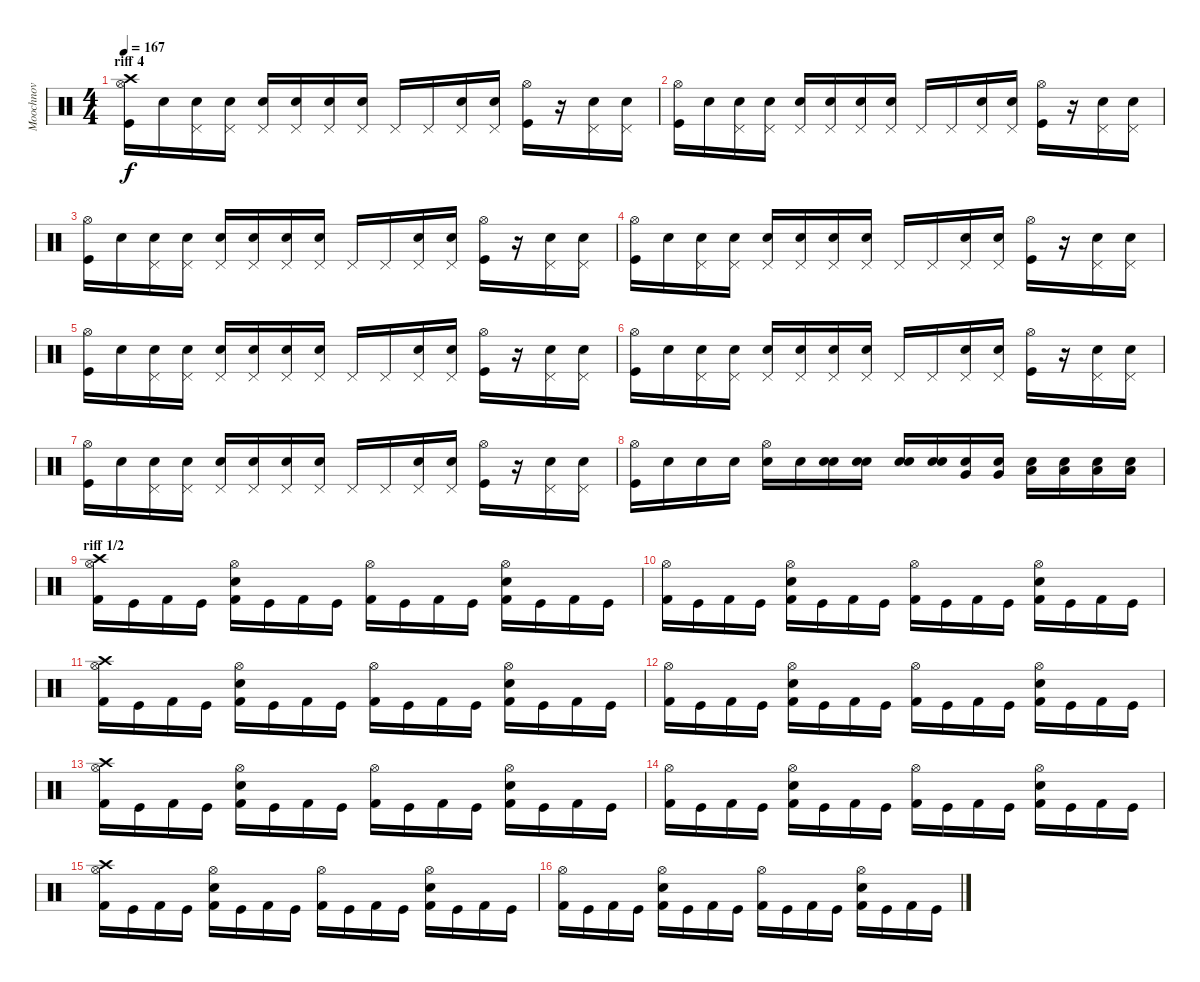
\track ("Moochnov" "Moochnov") {instrument percussion}
\staff {score}
\articulation defaults
\ts (4 4)
\section ("" "riff 4")
\tempo 167
\clef neutral
\ks c
("Kick (hit)" "Hi-Hat (open)" "Crash high (hit)").16{dy f} "Snare (hit)"{x}.16 ("Snare (hit)"{x} "Pedal Hi-Hat (hit)").16 ("Snare (hit)"{x} "Pedal Hi-Hat (hit)").16 ("Snare (hit)"{x} "Pedal Hi-Hat (hit)").16 ("Snare (hit)"{x} "Pedal Hi-Hat (hit)").16 ("Snare (hit) 2" "Pedal Hi-Hat (hit)").16 ("Snare (hit)"{x} "Pedal Hi-Hat (hit)").16 "Pedal Hi-Hat (hit)".16 "Pedal Hi-Hat (hit)".16 ("Snare (hit)"{x} "Pedal Hi-Hat (hit)").16 ("Snare (hit)"{x} "Pedal Hi-Hat (hit)").16 ("Kick (hit)" "Hi-Hat (open)").16 r.16 ("Snare (hit)"{x} "Pedal Hi-Hat (hit)").16 ("Snare (hit)"{x} "Pedal Hi-Hat (hit)").16 |
("Kick (hit)" "Hi-Hat (open)").16 "Snare (hit)"{x}.16 ("Snare (hit)"{x} "Pedal Hi-Hat (hit)").16 ("Snare (hit)"{x} "Pedal Hi-Hat (hit)").16 ("Snare (hit)"{x} "Pedal Hi-Hat (hit)").16 ("Snare (hit)"{x} "Pedal Hi-Hat (hit)").16 ("Snare (hit) 2" "Pedal Hi-Hat (hit)").16 ("Snare (hit)"{x} "Pedal Hi-Hat (hit)").16 "Pedal Hi-Hat (hit)".16 "Pedal Hi-Hat (hit)".16 ("Snare (hit)"{x} "Pedal Hi-Hat (hit)").16 ("Snare (hit)"{x} "Pedal Hi-Hat (hit)").16 ("Kick (hit)" "Hi-Hat (open)").16 r.16 ("Snare (hit)"{x} "Pedal Hi-Hat (hit)").16 ("Snare (hit)"{x} "Pedal Hi-Hat (hit)").16 |
("Kick (hit)" "Hi-Hat (open)").16 "Snare (hit)"{x}.16 ("Snare (hit)"{x} "Pedal Hi-Hat (hit)").16 ("Snare (hit)"{x} "Pedal Hi-Hat (hit)").16 ("Snare (hit)"{x} "Pedal Hi-Hat (hit)").16 ("Snare (hit)"{x} "Pedal Hi-Hat (hit)").16 ("Snare (hit) 2" "Pedal Hi-Hat (hit)").16 ("Snare (hit)"{x} "Pedal Hi-Hat (hit)").16 "Pedal Hi-Hat (hit)".16 "Pedal Hi-Hat (hit)".16 ("Snare (hit)"{x} "Pedal Hi-Hat (hit)").16 ("Snare (hit)"{x} "Pedal Hi-Hat (hit)").16 ("Kick (hit)" "Hi-Hat (open)").16 r.16 ("Snare (hit)"{x} "Pedal Hi-Hat (hit)").16 ("Snare (hit)"{x} "Pedal Hi-Hat (hit)").16 |
("Kick (hit)" "Hi-Hat (open)").16 "Snare (hit)"{x}.16 ("Snare (hit)"{x} "Pedal Hi-Hat (hit)").16 ("Snare (hit)"{x} "Pedal Hi-Hat (hit)").16 ("Snare (hit)"{x} "Pedal Hi-Hat (hit)").16 ("Snare (hit)"{x} "Pedal Hi-Hat (hit)").16 ("Snare (hit) 2" "Pedal Hi-Hat (hit)").16 ("Snare (hit)"{x} "Pedal Hi-Hat (hit)").16 "Pedal Hi-Hat (hit)".16 "Pedal Hi-Hat (hit)".16 ("Snare (hit)"{x} "Pedal Hi-Hat (hit)").16 ("Snare (hit)"{x} "Pedal Hi-Hat (hit)").16 ("Kick (hit)" "Hi-Hat (open)").16 r.16 ("Snare (hit)"{x} "Pedal Hi-Hat (hit)").16 ("Snare (hit)"{x} "Pedal Hi-Hat (hit)").16 |
("Kick (hit)" "Hi-Hat (open)").16 "Snare (hit)"{x}.16 ("Snare (hit)"{x} "Pedal Hi-Hat (hit)").16 ("Snare (hit)"{x} "Pedal Hi-Hat (hit)").16 ("Snare (hit)"{x} "Pedal Hi-Hat (hit)").16 ("Snare (hit)"{x} "Pedal Hi-Hat (hit)").16 ("Snare (hit) 2" "Pedal Hi-Hat (hit)").16 ("Snare (hit)"{x} "Pedal Hi-Hat (hit)").16 "Pedal Hi-Hat (hit)".16 "Pedal Hi-Hat (hit)".16 ("Snare (hit)"{x} "Pedal Hi-Hat (hit)").16 ("Snare (hit)"{x} "Pedal Hi-Hat (hit)").16 ("Kick (hit)" "Hi-Hat (open)").16 r.16 ("Snare (hit)"{x} "Pedal Hi-Hat (hit)").16 ("Snare (hit)"{x} "Pedal Hi-Hat (hit)").16 |
("Kick (hit)" "Hi-Hat (open)").16 "Snare (hit)"{x}.16 ("Snare (hit)"{x} "Pedal Hi-Hat (hit)").16 ("Snare (hit)"{x} "Pedal Hi-Hat (hit)").16 ("Snare (hit)"{x} "Pedal Hi-Hat (hit)").16 ("Snare (hit)"{x} "Pedal Hi-Hat (hit)").16 ("Snare (hit) 2" "Pedal Hi-Hat (hit)").16 ("Snare (hit)"{x} "Pedal Hi-Hat (hit)").16 "Pedal Hi-Hat (hit)".16 "Pedal Hi-Hat (hit)".16 ("Snare (hit)"{x} "Pedal Hi-Hat (hit)").16 ("Snare (hit)"{x} "Pedal Hi-Hat (hit)").16 ("Kick (hit)" "Hi-Hat (open)").16 r.16 ("Snare (hit)"{x} "Pedal Hi-Hat (hit)").16 ("Snare (hit)"{x} "Pedal Hi-Hat (hit)").16 |
("Kick (hit)" "Hi-Hat (open)").16 "Snare (hit)"{x}.16 ("Snare (hit)"{x} "Pedal Hi-Hat (hit)").16 ("Snare (hit)"{x} "Pedal Hi-Hat (hit)").16 ("Snare (hit)"{x} "Pedal Hi-Hat (hit)").16 ("Snare (hit)"{x} "Pedal Hi-Hat (hit)").16 ("Snare (hit) 2" "Pedal Hi-Hat (hit)").16 ("Snare (hit)"{x} "Pedal Hi-Hat (hit)").16 "Pedal Hi-Hat (hit)".16 "Pedal Hi-Hat (hit)".16 ("Snare (hit)"{x} "Pedal Hi-Hat (hit)").16 ("Snare (hit)"{x} "Pedal Hi-Hat (hit)").16 ("Kick (hit)" "Hi-Hat (open)").16 r.16 ("Snare (hit)"{x} "Pedal Hi-Hat (hit)").16 ("Snare (hit)"{x} "Pedal Hi-Hat (hit)").16 |
("Kick (hit)" "Hi-Hat (open)").16 "Snare (hit)"{x}.16 "Snare (hit)"{x}.16 "Snare (hit)"{x}.16 ("Snare (hit)"{x} "Hi-Hat (open)").16 "Snare (hit)"{x}.16 ("Snare (hit)"{x} "Electric Snare (hit)").16 ("Snare (hit)"{x} "Electric Snare (hit)").16 ("Snare (hit)"{x} "Electric Snare (hit)").16 ("Snare (hit)"{x} "Electric Snare (hit)").16 ("Snare (hit)"{x} "Very Low Tom (hit)").16 ("Snare (hit)"{x} "Very Low Tom (hit)").16 ("Snare (hit)"{x} "Low Floor Tom (hit)").16 ("Snare (hit)"{x} "Low Floor Tom (hit)").16 ("Snare (hit)"{x} "Low Floor Tom (hit)").16 ("Snare (hit)"{x} "Low Floor Tom (hit)").16 |
\section ("" "riff 1/2")
("Kick (hit) 2" "Crash high (hit)" "Hi-Hat (open)").16 "Kick (hit)".16 "Kick (hit) 2".16 "Kick (hit)".16 ("Kick (hit) 2" "Snare (hit) 2" "Hi-Hat (open)").16 "Kick (hit)".16 "Kick (hit) 2".16 "Kick (hit)".16 ("Kick (hit) 2" "Hi-Hat (open)").16 "Kick (hit)".16 "Kick (hit) 2".16 "Kick (hit)".16 ("Kick (hit) 2" "Snare (hit) 2" "Hi-Hat (open)").16 "Kick (hit)".16 "Kick (hit) 2".16 "Kick (hit)".16 |
("Kick (hit) 2" "Hi-Hat (open)").16 "Kick (hit)".16 "Kick (hit) 2".16 "Kick (hit)".16 ("Kick (hit) 2" "Snare (hit) 2" "Hi-Hat (open)").16 "Kick (hit)".16 "Kick (hit) 2".16 "Kick (hit)".16 ("Kick (hit) 2" "Hi-Hat (open)").16 "Kick (hit)".16 "Kick (hit) 2".16 "Kick (hit)".16 ("Kick (hit) 2" "Snare (hit) 2" "Hi-Hat (open)").16 "Kick (hit)".16 "Kick (hit) 2".16 "Kick (hit)".16 |
("Kick (hit) 2" "Crash high (hit)" "Hi-Hat (open)").16 "Kick (hit)".16 "Kick (hit) 2".16 "Kick (hit)".16 ("Kick (hit) 2" "Snare (hit) 2" "Hi-Hat (open)").16 "Kick (hit)".16 "Kick (hit) 2".16 "Kick (hit)".16 ("Kick (hit) 2" "Hi-Hat (open)").16 "Kick (hit)".16 "Kick (hit) 2".16 "Kick (hit)".16 ("Kick (hit) 2" "Snare (hit) 2" "Hi-Hat (open)").16 "Kick (hit)".16 "Kick (hit) 2".16 "Kick (hit)".16 |
("Kick (hit) 2" "Hi-Hat (open)").16 "Kick (hit)".16 "Kick (hit) 2".16 "Kick (hit)".16 ("Kick (hit) 2" "Snare (hit) 2" "Hi-Hat (open)").16 "Kick (hit)".16 "Kick (hit) 2".16 "Kick (hit)".16 ("Kick (hit) 2" "Hi-Hat (open)").16 "Kick (hit)".16 "Kick (hit) 2".16 "Kick (hit)".16 ("Kick (hit) 2" "Snare (hit) 2" "Hi-Hat (open)").16 "Kick (hit)".16 "Kick (hit) 2".16 "Kick (hit)".16 |
("Kick (hit) 2" "Crash high (hit)" "Hi-Hat (open)").16 "Kick (hit)".16 "Kick (hit) 2".16 "Kick (hit)".16 ("Kick (hit) 2" "Snare (hit) 2" "Hi-Hat (open)").16 "Kick (hit)".16 "Kick (hit) 2".16 "Kick (hit)".16 ("Kick (hit) 2" "Hi-Hat (open)").16 "Kick (hit)".16 "Kick (hit) 2".16 "Kick (hit)".16 ("Kick (hit) 2" "Snare (hit) 2" "Hi-Hat (open)").16 "Kick (hit)".16 "Kick (hit) 2".16 "Kick (hit)".16 |
("Kick (hit) 2" "Hi-Hat (open)").16 "Kick (hit)".16 "Kick (hit) 2".16 "Kick (hit)".16 ("Kick (hit) 2" "Snare (hit) 2" "Hi-Hat (open)").16 "Kick (hit)".16 "Kick (hit) 2".16 "Kick (hit)".16 ("Kick (hit) 2" "Hi-Hat (open)").16 "Kick (hit)".16 "Kick (hit) 2".16 "Kick (hit)".16 ("Kick (hit) 2" "Snare (hit) 2" "Hi-Hat (open)").16 "Kick (hit)".16 "Kick (hit) 2".16 "Kick (hit)".16 |
("Kick (hit) 2" "Crash high (hit)" "Hi-Hat (open)").16 "Kick (hit)".16 "Kick (hit) 2".16 "Kick (hit)".16 ("Kick (hit) 2" "Snare (hit) 2" "Hi-Hat (open)").16 "Kick (hit)".16 "Kick (hit) 2".16 "Kick (hit)".16 ("Kick (hit) 2" "Hi-Hat (open)").16 "Kick (hit)".16 "Kick (hit) 2".16 "Kick (hit)".16 ("Kick (hit) 2" "Snare (hit) 2" "Hi-Hat (open)").16 "Kick (hit)".16 "Kick (hit) 2".16 "Kick (hit)".16 |
("Kick (hit) 2" "Hi-Hat (open)").16 "Kick (hit)".16 "Kick (hit) 2".16 "Kick (hit)".16 ("Kick (hit) 2" "Snare (hit) 2" "Hi-Hat (open)").16 "Kick (hit)".16 "Kick (hit) 2".16 "Kick (hit)".16 ("Kick (hit) 2" "Hi-Hat (open)").16 "Kick (hit)".16 "Kick (hit) 2".16 "Kick (hit)".16 ("Kick (hit) 2" "Snare (hit) 2" "Hi-Hat (open)").16 "Kick (hit)".16 "Kick (hit) 2".16 "Kick (hit)".16
